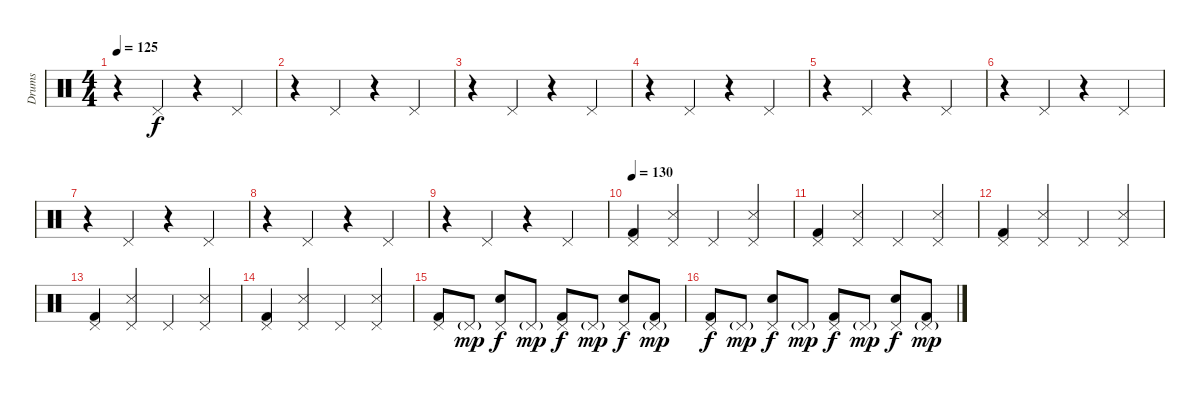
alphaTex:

\track ("Drums" "Drums") {instrument percussion}
\staff {score}
\articulation defaults
\ts (4 4)
\tempo 125
\clef neutral
\ks c
r.4{dy f} "Pedal Hi-Hat (hit)".4 r.4 "Pedal Hi-Hat (hit)".4 |
r.4 "Pedal Hi-Hat (hit)".4 r.4 "Pedal Hi-Hat (hit)".4 |
r.4 "Pedal Hi-Hat (hit)".4 r.4 "Pedal Hi-Hat (hit)".4 |
r.4 "Pedal Hi-Hat (hit)".4 r.4 "Pedal Hi-Hat (hit)".4 |
r.4 "Pedal Hi-Hat (hit)".4 r.4 "Pedal Hi-Hat (hit)".4 |
r.4 "Pedal Hi-Hat (hit)".4 r.4 "Pedal Hi-Hat (hit)".4 |
r.4 "Pedal Hi-Hat (hit)".4 r.4 "Pedal Hi-Hat (hit)".4 |
r.4 "Pedal Hi-Hat (hit)".4 r.4 "Pedal Hi-Hat (hit)".4 |
r.4 "Pedal Hi-Hat (hit)".4 r.4 "Pedal Hi-Hat (hit)".4 |
\tempo 130
("Pedal Hi-Hat (hit)" "Kick (hit) 2").4 ("Snare (side stick) 3" "Pedal Hi-Hat (hit)").4 "Pedal Hi-Hat (hit)".4 ("Snare (side stick) 3" "Pedal Hi-Hat (hit)").4 |
("Pedal Hi-Hat (hit)" "Kick (hit) 2").4 ("Snare (side stick) 3" "Pedal Hi-Hat (hit)").4 "Pedal Hi-Hat (hit)".4 ("Snare (side stick) 3" "Pedal Hi-Hat (hit)").4 |
("Pedal Hi-Hat (hit)" "Kick (hit) 2").4 ("Snare (side stick) 3" "Pedal Hi-Hat (hit)").4 "Pedal Hi-Hat (hit)".4 ("Snare (side stick) 3" "Pedal Hi-Hat (hit)").4 |
("Pedal Hi-Hat (hit)" "Kick (hit) 2").4 ("Snare (side stick) 3" "Pedal Hi-Hat (hit)").4 "Pedal Hi-Hat (hit)".4 ("Snare (side stick) 3" "Pedal Hi-Hat (hit)").4 |
("Pedal Hi-Hat (hit)" "Kick (hit) 2").4 ("Snare (side stick) 3" "Pedal Hi-Hat (hit)").4 "Pedal Hi-Hat (hit)".4 ("Snare (side stick) 3" "Pedal Hi-Hat (hit)").4 |
("Pedal Hi-Hat (hit)" "Kick (hit) 2").8 "Pedal Hi-Hat (hit)"{g}.8{dy mp} ("Electric Snare (hit)" "Pedal Hi-Hat (hit)").8{dy f} "Pedal Hi-Hat (hit)"{g}.8{dy mp} ("Pedal Hi-Hat (hit)" "Kick (hit) 2").8{dy f} "Pedal Hi-Hat (hit)"{g}.8{dy mp} ("Electric Snare (hit)" "Pedal Hi-Hat (hit)").8{dy f} ("Pedal Hi-Hat (hit)"{g} "Kick (hit) 2").8{dy mp} |
("Pedal Hi-Hat (hit)" "Kick (hit) 2").8{dy f} "Pedal Hi-Hat (hit)"{g}.8{dy mp} ("Electric Snare (hit)" "Pedal Hi-Hat (hit)").8{dy f} "Pedal Hi-Hat (hit)"{g}.8{dy mp} ("Pedal Hi-Hat (hit)" "Kick (hit) 2").8{dy f} "Pedal Hi-Hat (hit)"{g}.8{dy mp} ("Electric Snare (hit)" "Pedal Hi-Hat (hit)").8{dy f} ("Pedal Hi-Hat (hit)"{g} "Kick (hit) 2").8{dy mp}
